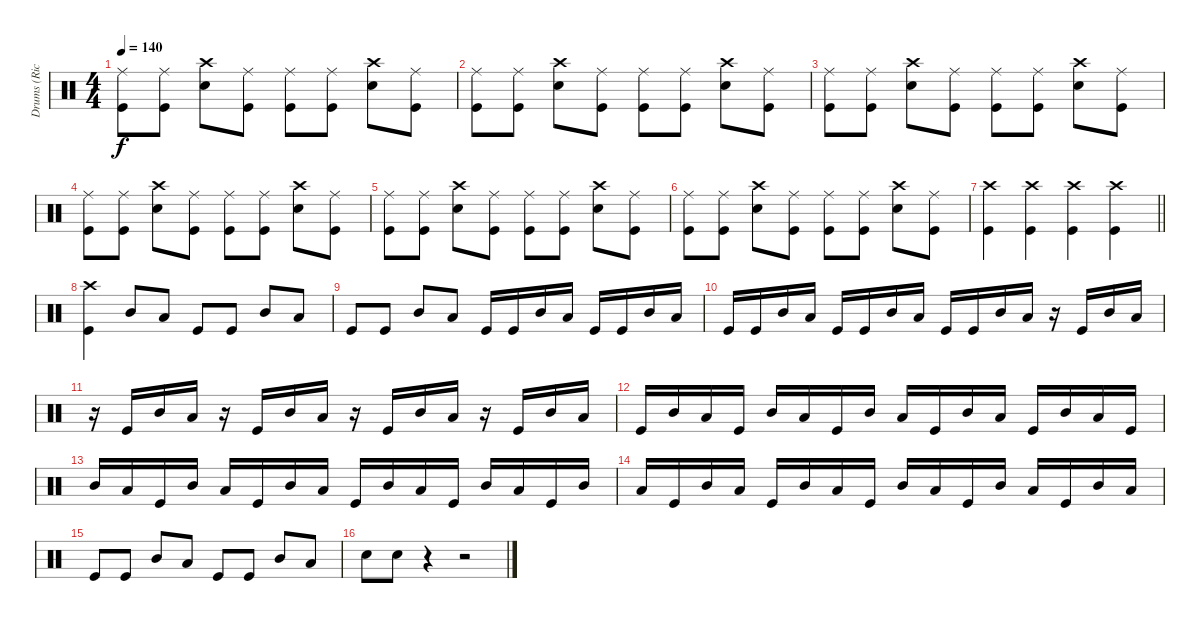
\track ("Drums (Rick)" "Drums (Ric") {instrument percussion}
\staff {score}
\articulation defaults
\ts (4 4)
\tempo 140
\clef neutral
\ks aminor
("Ride (middle)" "Kick (hit)").8{dy f} ("Ride (middle)" "Kick (hit)").8 ("Crash high (hit)" "Snare (hit) 2").8 ("Ride (middle)" "Kick (hit)").8 ("Ride (middle)" "Kick (hit)").8 ("Ride (middle)" "Kick (hit)").8 ("Crash high (hit)" "Snare (hit) 2").8 ("Ride (middle)" "Kick (hit)").8 |
("Ride (middle)" "Kick (hit)").8 ("Ride (middle)" "Kick (hit)").8 ("Crash high (hit)" "Snare (hit) 2").8 ("Ride (middle)" "Kick (hit)").8 ("Ride (middle)" "Kick (hit)").8 ("Ride (middle)" "Kick (hit)").8 ("Crash high (hit)" "Snare (hit) 2").8 ("Ride (middle)" "Kick (hit)").8 |
("Ride (middle)" "Kick (hit)").8 ("Ride (middle)" "Kick (hit)").8 ("Crash high (hit)" "Snare (hit) 2").8 ("Ride (middle)" "Kick (hit)").8 ("Ride (middle)" "Kick (hit)").8 ("Ride (middle)" "Kick (hit)").8 ("Crash high (hit)" "Snare (hit) 2").8 ("Ride (middle)" "Kick (hit)").8 |
("Ride (middle)" "Kick (hit)").8 ("Ride (middle)" "Kick (hit)").8 ("Crash high (hit)" "Snare (hit) 2").8 ("Ride (middle)" "Kick (hit)").8 ("Ride (middle)" "Kick (hit)").8 ("Ride (middle)" "Kick (hit)").8 ("Crash high (hit)" "Snare (hit) 2").8 ("Ride (middle)" "Kick (hit)").8 |
("Ride (middle)" "Kick (hit)").8 ("Ride (middle)" "Kick (hit)").8 ("Crash high (hit)" "Snare (hit) 2").8 ("Ride (middle)" "Kick (hit)").8 ("Ride (middle)" "Kick (hit)").8 ("Ride (middle)" "Kick (hit)").8 ("Crash high (hit)" "Snare (hit) 2").8 ("Ride (middle)" "Kick (hit)").8 |
("Ride (middle)" "Kick (hit)").8 ("Ride (middle)" "Kick (hit)").8 ("Crash high (hit)" "Snare (hit) 2").8 ("Ride (middle)" "Kick (hit)").8 ("Ride (middle)" "Kick (hit)").8 ("Ride (middle)" "Kick (hit)").8 ("Crash high (hit)" "Snare (hit) 2").8 ("Ride (middle)" "Kick (hit)").8 |
\barLineRight lightlight
("Crash high (hit)" "Kick (hit)").4 ("Crash high (hit)" "Kick (hit)").4 ("Crash high (hit)" "Kick (hit)").4 ("Crash high (hit)" "Kick (hit)").4 |
("Crash high (hit)" "Kick (hit)").4 "Mid Tom (hit)".8 "Low Tom (hit)".8 "Kick (hit)".8 "Kick (hit)".8 "Mid Tom (hit)".8 "Low Tom (hit)".8 |
"Kick (hit)".8 "Kick (hit)".8 "Mid Tom (hit)".8 "Low Tom (hit)".8 "Kick (hit)".16 "Kick (hit)".16 "Mid Tom (hit)".16 "Low Tom (hit)".16 "Kick (hit)".16 "Kick (hit)".16 "Mid Tom (hit)".16 "Low Tom (hit)".16 |
"Kick (hit)".16 "Kick (hit)".16 "Mid Tom (hit)".16 "Low Tom (hit)".16 "Kick (hit)".16 "Kick (hit)".16 "Mid Tom (hit)".16 "Low Tom (hit)".16 "Kick (hit)".16 "Kick (hit)".16 "Mid Tom (hit)".16 "Low Tom (hit)".16 r.16 "Kick (hit)".16 "Mid Tom (hit)".16 "Low Tom (hit)".16 |
r.16 "Kick (hit)".16 "Mid Tom (hit)".16 "Low Tom (hit)".16 r.16 "Kick (hit)".16 "Mid Tom (hit)".16 "Low Tom (hit)".16 r.16 "Kick (hit)".16 "Mid Tom (hit)".16 "Low Tom (hit)".16 r.16 "Kick (hit)".16 "Mid Tom (hit)".16 "Low Tom (hit)".16 |
"Kick (hit)".16 "Mid Tom (hit)".16 "Low Tom (hit)".16 "Kick (hit)".16 "Mid Tom (hit)".16 "Low Tom (hit)".16 "Kick (hit)".16 "Mid Tom (hit)".16 "Low Tom (hit)".16 "Kick (hit)".16 "Mid Tom (hit)".16 "Low Tom (hit)".16 "Kick (hit)".16 "Mid Tom (hit)".16 "Low Tom (hit)".16 "Kick (hit)".16 |
"Mid Tom (hit)".16 "Low Tom (hit)".16 "Kick (hit)".16 "Mid Tom (hit)".16 "Low Tom (hit)".16 "Kick (hit)".16 "Mid Tom (hit)".16 "Low Tom (hit)".16 "Kick (hit)".16 "Mid Tom (hit)".16 "Low Tom (hit)".16 "Kick (hit)".16 "Mid Tom (hit)".16 "Low Tom (hit)".16 "Kick (hit)".16 "Mid Tom (hit)".16 |
"Low Tom (hit)".16 "Kick (hit)".16 "Mid Tom (hit)".16 "Low Tom (hit)".16 "Kick (hit)".16 "Mid Tom (hit)".16 "Low Tom (hit)".16 "Kick (hit)".16 "Mid Tom (hit)".16 "Low Tom (hit)".16 "Kick (hit)".16 "Mid Tom (hit)".16 "Low Tom (hit)".16 "Kick (hit)".16 "Mid Tom (hit)".16 "Low Tom (hit)".16 |
"Kick (hit)".8 "Kick (hit)".8 "Mid Tom (hit)".8 "Low Tom (hit)".8 "Kick (hit)".8 "Kick (hit)".8 "Mid Tom (hit)".8 "Low Tom (hit)".8 |
"Snare (hit) 2".8 "Snare (hit) 2".8 r.4 r.2
